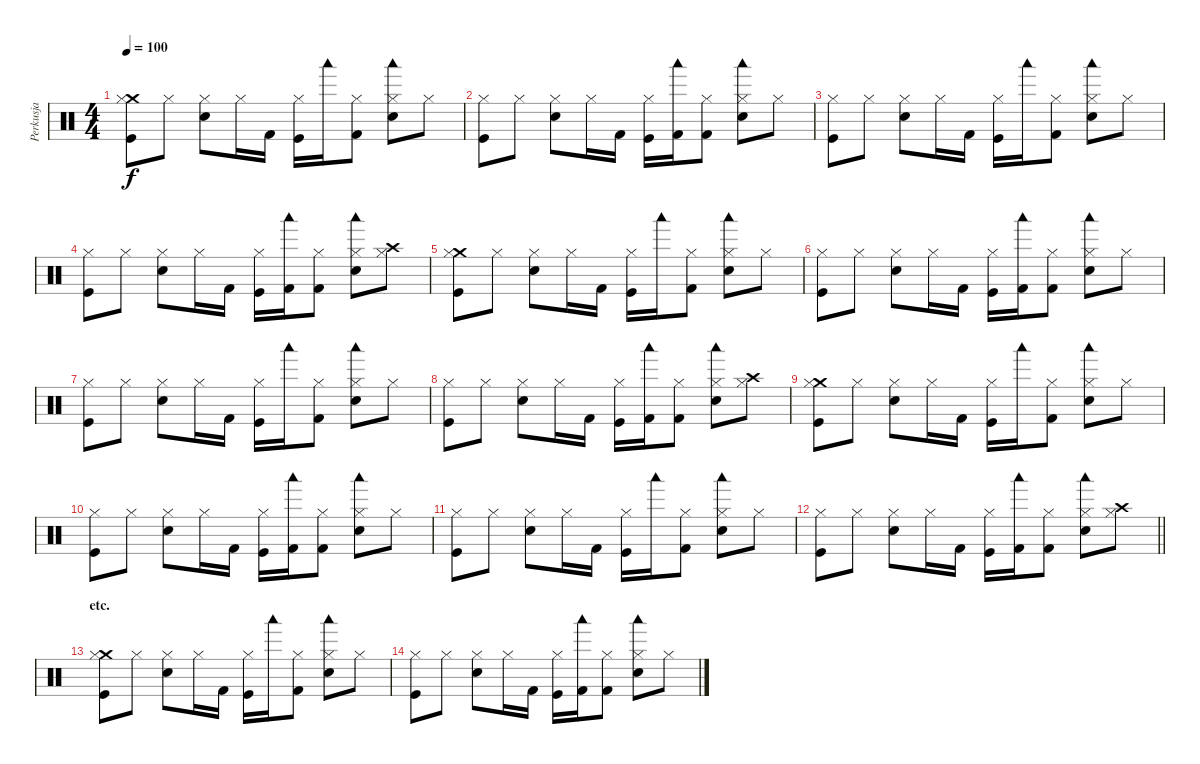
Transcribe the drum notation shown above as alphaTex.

\track ("Perkusja" "Perkusja") {instrument percussion}
\staff {score}
\articulation defaults
\ts (4 4)
\tempo 100
\clef neutral
\ks c
("Kick (hit)" "Crash medium (hit)" "Hi-Hat (closed)").8{dy f} "Hi-Hat (closed)".8 ("Electric Snare (hit)" "Hi-Hat (closed)").8 "Hi-Hat (closed)".16 "Kick (hit) 2".16 ("Kick (hit)" "Hi-Hat (closed)").16 "Woodblock low (hit)".16 ("Kick (hit) 2" "Hi-Hat (closed)").8 ("Electric Snare (hit)" "Woodblock low (hit)" "Hi-Hat (closed)").8 "Hi-Hat (closed)".8 |
("Kick (hit)" "Hi-Hat (closed)").8 "Hi-Hat (closed)".8 ("Electric Snare (hit)" "Hi-Hat (closed)").8 "Hi-Hat (closed)".16 "Kick (hit) 2".16 ("Kick (hit)" "Hi-Hat (closed)").16 ("Kick (hit) 2" "Woodblock low (hit)").16 ("Kick (hit) 2" "Hi-Hat (closed)").8 ("Electric Snare (hit)" "Woodblock low (hit)" "Hi-Hat (closed)").8 "Hi-Hat (closed)".8 |
("Kick (hit)" "Hi-Hat (closed)").8 "Hi-Hat (closed)".8 ("Electric Snare (hit)" "Hi-Hat (closed)").8 "Hi-Hat (closed)".16 "Kick (hit) 2".16 ("Kick (hit)" "Hi-Hat (closed)").16 "Woodblock low (hit)".16 ("Kick (hit) 2" "Hi-Hat (closed)").8 ("Electric Snare (hit)" "Woodblock low (hit)" "Hi-Hat (closed)").8 "Hi-Hat (closed)".8 |
("Kick (hit)" "Hi-Hat (closed)").8 "Hi-Hat (closed)".8 ("Electric Snare (hit)" "Hi-Hat (closed)").8 "Hi-Hat (closed)".16 "Kick (hit) 2".16 ("Kick (hit)" "Hi-Hat (closed)").16 ("Kick (hit) 2" "Woodblock low (hit)").16 ("Kick (hit) 2" "Hi-Hat (closed)").8 ("Electric Snare (hit)" "Woodblock low (hit)" "Hi-Hat (closed)").8 ("Crash high (hit)" "Hi-Hat (closed)").8 |
("Kick (hit)" "Crash medium (hit)" "Hi-Hat (closed)").8 "Hi-Hat (closed)".8 ("Electric Snare (hit)" "Hi-Hat (closed)").8 "Hi-Hat (closed)".16 "Kick (hit) 2".16 ("Kick (hit)" "Hi-Hat (closed)").16 "Woodblock low (hit)".16 ("Kick (hit) 2" "Hi-Hat (closed)").8 ("Electric Snare (hit)" "Woodblock low (hit)" "Hi-Hat (closed)").8 "Hi-Hat (closed)".8 |
("Kick (hit)" "Hi-Hat (closed)").8 "Hi-Hat (closed)".8 ("Electric Snare (hit)" "Hi-Hat (closed)").8 "Hi-Hat (closed)".16 "Kick (hit) 2".16 ("Kick (hit)" "Hi-Hat (closed)").16 ("Kick (hit) 2" "Woodblock low (hit)").16 ("Kick (hit) 2" "Hi-Hat (closed)").8 ("Electric Snare (hit)" "Woodblock low (hit)" "Hi-Hat (closed)").8 "Hi-Hat (closed)".8 |
("Kick (hit)" "Hi-Hat (closed)").8 "Hi-Hat (closed)".8 ("Electric Snare (hit)" "Hi-Hat (closed)").8 "Hi-Hat (closed)".16 "Kick (hit) 2".16 ("Kick (hit)" "Hi-Hat (closed)").16 "Woodblock low (hit)".16 ("Kick (hit) 2" "Hi-Hat (closed)").8 ("Electric Snare (hit)" "Woodblock low (hit)" "Hi-Hat (closed)").8 "Hi-Hat (closed)".8 |
("Kick (hit)" "Hi-Hat (closed)").8 "Hi-Hat (closed)".8 ("Electric Snare (hit)" "Hi-Hat (closed)").8 "Hi-Hat (closed)".16 "Kick (hit) 2".16 ("Kick (hit)" "Hi-Hat (closed)").16 ("Kick (hit) 2" "Woodblock low (hit)").16 ("Kick (hit) 2" "Hi-Hat (closed)").8 ("Electric Snare (hit)" "Woodblock low (hit)" "Hi-Hat (closed)").8 ("Crash high (hit)" "Hi-Hat (closed)").8 |
("Kick (hit)" "Crash medium (hit)" "Hi-Hat (closed)").8 "Hi-Hat (closed)".8 ("Electric Snare (hit)" "Hi-Hat (closed)").8 "Hi-Hat (closed)".16 "Kick (hit) 2".16 ("Kick (hit)" "Hi-Hat (closed)").16 "Woodblock low (hit)".16 ("Kick (hit) 2" "Hi-Hat (closed)").8 ("Electric Snare (hit)" "Woodblock low (hit)" "Hi-Hat (closed)").8 "Hi-Hat (closed)".8 |
("Kick (hit)" "Hi-Hat (closed)").8 "Hi-Hat (closed)".8 ("Electric Snare (hit)" "Hi-Hat (closed)").8 "Hi-Hat (closed)".16 "Kick (hit) 2".16 ("Kick (hit)" "Hi-Hat (closed)").16 ("Kick (hit) 2" "Woodblock low (hit)").16 ("Kick (hit) 2" "Hi-Hat (closed)").8 ("Electric Snare (hit)" "Woodblock low (hit)" "Hi-Hat (closed)").8 "Hi-Hat (closed)".8 |
("Kick (hit)" "Hi-Hat (closed)").8 "Hi-Hat (closed)".8 ("Electric Snare (hit)" "Hi-Hat (closed)").8 "Hi-Hat (closed)".16 "Kick (hit) 2".16 ("Kick (hit)" "Hi-Hat (closed)").16 "Woodblock low (hit)".16 ("Kick (hit) 2" "Hi-Hat (closed)").8 ("Electric Snare (hit)" "Woodblock low (hit)" "Hi-Hat (closed)").8 "Hi-Hat (closed)".8 |
\barLineRight lightlight
("Kick (hit)" "Hi-Hat (closed)").8 "Hi-Hat (closed)".8 ("Electric Snare (hit)" "Hi-Hat (closed)").8 "Hi-Hat (closed)".16 "Kick (hit) 2".16 ("Kick (hit)" "Hi-Hat (closed)").16 ("Kick (hit) 2" "Woodblock low (hit)").16 ("Kick (hit) 2" "Hi-Hat (closed)").8 ("Electric Snare (hit)" "Woodblock low (hit)" "Hi-Hat (closed)").8 ("Crash high (hit)" "Hi-Hat (closed)").8 |
\section ("" "etc.")
("Kick (hit)" "Crash medium (hit)" "Hi-Hat (closed)").8 "Hi-Hat (closed)".8 ("Electric Snare (hit)" "Hi-Hat (closed)").8 "Hi-Hat (closed)".16 "Kick (hit) 2".16 ("Kick (hit)" "Hi-Hat (closed)").16 "Woodblock low (hit)".16 ("Kick (hit) 2" "Hi-Hat (closed)").8 ("Electric Snare (hit)" "Woodblock low (hit)" "Hi-Hat (closed)").8 "Hi-Hat (closed)".8 |
("Kick (hit)" "Hi-Hat (closed)").8 "Hi-Hat (closed)".8 ("Electric Snare (hit)" "Hi-Hat (closed)").8 "Hi-Hat (closed)".16 "Kick (hit) 2".16 ("Kick (hit)" "Hi-Hat (closed)").16 ("Kick (hit) 2" "Woodblock low (hit)").16 ("Kick (hit) 2" "Hi-Hat (closed)").8 ("Electric Snare (hit)" "Woodblock low (hit)" "Hi-Hat (closed)").8 "Hi-Hat (closed)".8
